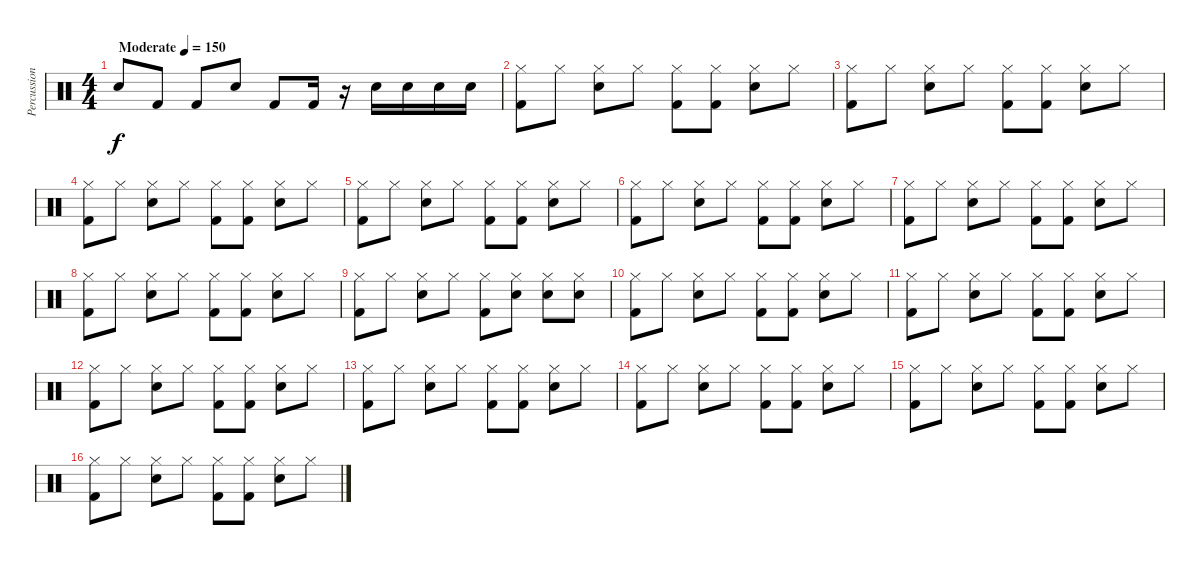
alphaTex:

\track ("Percussion" "Percussion") {instrument percussion}
\staff {score}
\articulation defaults
\ts (4 4)
\tempo (150 "Moderate")
\clef neutral
\ks c "Electric Snare (hit)".8{dy f} "Kick (hit) 2".8 "Kick (hit) 2".8 "Electric Snare (hit)".8 "Kick (hit) 2".8 "Kick (hit) 2".16
r.16 "Electric Snare (hit)".16 "Electric Snare (hit)".16 "Electric Snare (hit)".16 "Electric Snare (hit)".16 |
("Hi-Hat (closed)" "Kick (hit) 2").8 "Hi-Hat (closed)".8 ("Hi-Hat (closed)" "Electric Snare (hit)").8 "Hi-Hat (closed)".8 ("Hi-Hat (closed)" "Kick (hit) 2").8 ("Hi-Hat (closed)" "Kick (hit) 2").8 ("Hi-Hat (closed)" "Electric Snare (hit)").8 "Hi-Hat (closed)".8 |
("Hi-Hat (closed)" "Kick (hit) 2").8 "Hi-Hat (closed)".8 ("Hi-Hat (closed)" "Electric Snare (hit)").8 "Hi-Hat (closed)".8 ("Hi-Hat (closed)" "Kick (hit) 2").8 ("Hi-Hat (closed)" "Kick (hit) 2").8 ("Hi-Hat (closed)" "Electric Snare (hit)").8 "Hi-Hat (closed)".8 |
("Hi-Hat (closed)" "Kick (hit) 2").8 "Hi-Hat (closed)".8 ("Hi-Hat (closed)" "Electric Snare (hit)").8 "Hi-Hat (closed)".8 ("Hi-Hat (closed)" "Kick (hit) 2").8 ("Hi-Hat (closed)" "Kick (hit) 2").8 ("Hi-Hat (closed)" "Electric Snare (hit)").8 "Hi-Hat (closed)".8 |
("Hi-Hat (closed)" "Kick (hit) 2").8 "Hi-Hat (closed)".8 ("Hi-Hat (closed)" "Electric Snare (hit)").8 "Hi-Hat (closed)".8 ("Hi-Hat (closed)" "Kick (hit) 2").8 ("Hi-Hat (closed)" "Kick (hit) 2").8 ("Hi-Hat (closed)" "Electric Snare (hit)").8 "Hi-Hat (closed)".8 |
("Hi-Hat (closed)" "Kick (hit) 2").8 "Hi-Hat (closed)".8 ("Hi-Hat (closed)" "Electric Snare (hit)").8 "Hi-Hat (closed)".8 ("Hi-Hat (closed)" "Kick (hit) 2").8 ("Hi-Hat (closed)" "Kick (hit) 2").8 ("Hi-Hat (closed)" "Electric Snare (hit)").8 "Hi-Hat (closed)".8 |
("Hi-Hat (closed)" "Kick (hit) 2").8 "Hi-Hat (closed)".8 ("Hi-Hat (closed)" "Electric Snare (hit)").8 "Hi-Hat (closed)".8 ("Hi-Hat (closed)" "Kick (hit) 2").8 ("Hi-Hat (closed)" "Kick (hit) 2").8 ("Hi-Hat (closed)" "Electric Snare (hit)").8 "Hi-Hat (closed)".8 |
("Hi-Hat (closed)" "Kick (hit) 2").8 "Hi-Hat (closed)".8 ("Hi-Hat (closed)" "Electric Snare (hit)").8 "Hi-Hat (closed)".8 ("Hi-Hat (closed)" "Kick (hit) 2").8 ("Hi-Hat (closed)" "Kick (hit) 2").8 ("Hi-Hat (closed)" "Electric Snare (hit)").8 "Hi-Hat (closed)".8 |
("Hi-Hat (closed)" "Kick (hit) 2").8 "Hi-Hat (closed)".8 ("Hi-Hat (closed)" "Electric Snare (hit)").8 "Hi-Hat (closed)".8 ("Hi-Hat (closed)" "Kick (hit) 2").8 ("Hi-Hat (closed)" "Electric Snare (hit)").8 ("Hi-Hat (closed)" "Electric Snare (hit)").8 ("Hi-Hat (closed)" "Electric Snare (hit)").8 |
("Hi-Hat (closed)" "Kick (hit) 2").8 "Hi-Hat (closed)".8 ("Hi-Hat (closed)" "Electric Snare (hit)").8 "Hi-Hat (closed)".8 ("Hi-Hat (closed)" "Kick (hit) 2").8 ("Hi-Hat (closed)" "Kick (hit) 2").8 ("Hi-Hat (closed)" "Electric Snare (hit)").8 "Hi-Hat (closed)".8 |
("Hi-Hat (closed)" "Kick (hit) 2").8 "Hi-Hat (closed)".8 ("Hi-Hat (closed)" "Electric Snare (hit)").8 "Hi-Hat (closed)".8 ("Hi-Hat (closed)" "Kick (hit) 2").8 ("Hi-Hat (closed)" "Kick (hit) 2").8 ("Hi-Hat (closed)" "Electric Snare (hit)").8 "Hi-Hat (closed)".8 |
("Hi-Hat (closed)" "Kick (hit) 2").8 "Hi-Hat (closed)".8 ("Hi-Hat (closed)" "Electric Snare (hit)").8 "Hi-Hat (closed)".8 ("Hi-Hat (closed)" "Kick (hit) 2").8 ("Hi-Hat (closed)" "Kick (hit) 2").8 ("Hi-Hat (closed)" "Electric Snare (hit)").8 "Hi-Hat (closed)".8 |
("Hi-Hat (closed)" "Kick (hit) 2").8 "Hi-Hat (closed)".8 ("Hi-Hat (closed)" "Electric Snare (hit)").8 "Hi-Hat (closed)".8 ("Hi-Hat (closed)" "Kick (hit) 2").8 ("Hi-Hat (closed)" "Kick (hit) 2").8 ("Hi-Hat (closed)" "Electric Snare (hit)").8 "Hi-Hat (closed)".8 |
("Hi-Hat (closed)" "Kick (hit) 2").8 "Hi-Hat (closed)".8 ("Hi-Hat (closed)" "Electric Snare (hit)").8 "Hi-Hat (closed)".8 ("Hi-Hat (closed)" "Kick (hit) 2").8 ("Hi-Hat (closed)" "Kick (hit) 2").8 ("Hi-Hat (closed)" "Electric Snare (hit)").8 "Hi-Hat (closed)".8 |
("Hi-Hat (closed)" "Kick (hit) 2").8 "Hi-Hat (closed)".8 ("Hi-Hat (closed)" "Electric Snare (hit)").8 "Hi-Hat (closed)".8 ("Hi-Hat (closed)" "Kick (hit) 2").8 ("Hi-Hat (closed)" "Kick (hit) 2").8 ("Hi-Hat (closed)" "Electric Snare (hit)").8 "Hi-Hat (closed)".8 |
("Hi-Hat (closed)" "Kick (hit) 2").8 "Hi-Hat (closed)".8 ("Hi-Hat (closed)" "Electric Snare (hit)").8 "Hi-Hat (closed)".8 ("Hi-Hat (closed)" "Kick (hit) 2").8 ("Hi-Hat (closed)" "Kick (hit) 2").8 ("Hi-Hat (closed)" "Electric Snare (hit)").8 "Hi-Hat (closed)".8
